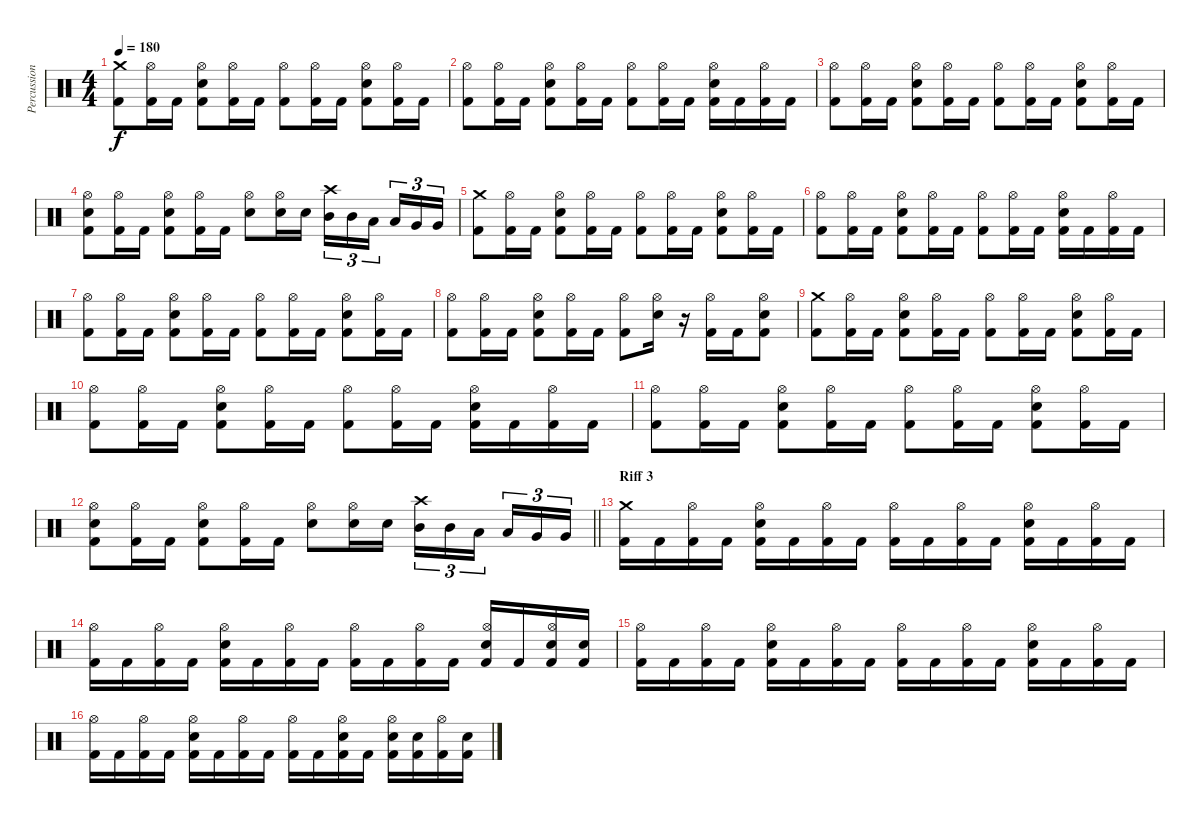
\track ("Percussion" "Percussion") {instrument percussion}
\staff {score}
\articulation defaults
\ts (4 4)
\tempo 180
\clef neutral
\ks c
("Crash medium (hit)" "Kick (hit) 2").8{dy f} ("Hi-Hat (open)" "Kick (hit) 2").16 "Kick (hit) 2".16 ("Kick (hit) 2" "Hi-Hat (open)" "Snare (hit) 2").8 ("Hi-Hat (open)" "Kick (hit) 2").16 "Kick (hit) 2".16 ("Hi-Hat (open)" "Kick (hit) 2").8 ("Hi-Hat (open)" "Kick (hit) 2").16 "Kick (hit) 2".16 ("Kick (hit) 2" "Hi-Hat (open)" "Snare (hit) 2").8 ("Hi-Hat (open)" "Kick (hit) 2").16 "Kick (hit) 2".16 |
("Hi-Hat (open)" "Kick (hit) 2").8 ("Hi-Hat (open)" "Kick (hit) 2").16 "Kick (hit) 2".16 ("Kick (hit) 2" "Hi-Hat (open)" "Snare (hit) 2").8 ("Hi-Hat (open)" "Kick (hit) 2").16 "Kick (hit) 2".16 ("Hi-Hat (open)" "Kick (hit) 2").8 ("Hi-Hat (open)" "Kick (hit) 2").16 "Kick (hit) 2".16 ("Kick (hit) 2" "Hi-Hat (open)" "Snare (hit) 2").16 "Kick (hit) 2".16 ("Hi-Hat (open)" "Kick (hit) 2").16 "Kick (hit) 2".16 |
("Hi-Hat (open)" "Kick (hit) 2").8 ("Hi-Hat (open)" "Kick (hit) 2").16 "Kick (hit) 2".16 ("Kick (hit) 2" "Hi-Hat (open)" "Snare (hit) 2").8 ("Hi-Hat (open)" "Kick (hit) 2").16 "Kick (hit) 2".16 ("Hi-Hat (open)" "Kick (hit) 2").8 ("Hi-Hat (open)" "Kick (hit) 2").16 "Kick (hit) 2".16 ("Kick (hit) 2" "Hi-Hat (open)" "Snare (hit) 2").8 ("Hi-Hat (open)" "Kick (hit) 2").16 "Kick (hit) 2".16 |
("Kick (hit) 2" "Hi-Hat (open)" "Snare (hit) 2").8 ("Hi-Hat (open)" "Kick (hit) 2").16 "Kick (hit) 2".16 ("Kick (hit) 2" "Hi-Hat (open)" "Snare (hit) 2").8 ("Hi-Hat (open)" "Kick (hit) 2").16 "Kick (hit) 2".16 ("Hi-Hat (open)" "Snare (hit) 2").8 ("Hi-Hat (open)" "Snare (hit) 2").16 "Snare (hit) 2".16 ("Crash high (hit)" "Mid Tom (hit)").16{tu (3 2)} "Mid Tom (hit)".16{tu (3 2)} "Low Tom (hit)".16{tu (3 2)} "Low Tom (hit)".16{tu (3 2)} "Very Low Tom (hit)".16{tu (3 2)} "Very Low Tom (hit)".16{tu (3 2)} |
("Crash medium (hit)" "Kick (hit) 2").8 ("Hi-Hat (open)" "Kick (hit) 2").16 "Kick (hit) 2".16 ("Kick (hit) 2" "Hi-Hat (open)" "Snare (hit) 2").8 ("Hi-Hat (open)" "Kick (hit) 2").16 "Kick (hit) 2".16 ("Hi-Hat (open)" "Kick (hit) 2").8 ("Hi-Hat (open)" "Kick (hit) 2").16 "Kick (hit) 2".16 ("Kick (hit) 2" "Hi-Hat (open)" "Snare (hit) 2").8 ("Hi-Hat (open)" "Kick (hit) 2").16 "Kick (hit) 2".16 |
("Hi-Hat (open)" "Kick (hit) 2").8 ("Hi-Hat (open)" "Kick (hit) 2").16 "Kick (hit) 2".16 ("Kick (hit) 2" "Hi-Hat (open)" "Snare (hit) 2").8 ("Hi-Hat (open)" "Kick (hit) 2").16 "Kick (hit) 2".16 ("Hi-Hat (open)" "Kick (hit) 2").8 ("Hi-Hat (open)" "Kick (hit) 2").16 "Kick (hit) 2".16 ("Kick (hit) 2" "Hi-Hat (open)" "Snare (hit) 2").16 "Kick (hit) 2".16 ("Hi-Hat (open)" "Kick (hit) 2").16 "Kick (hit) 2".16 |
("Hi-Hat (open)" "Kick (hit) 2").8 ("Hi-Hat (open)" "Kick (hit) 2").16 "Kick (hit) 2".16 ("Kick (hit) 2" "Hi-Hat (open)" "Snare (hit) 2").8 ("Hi-Hat (open)" "Kick (hit) 2").16 "Kick (hit) 2".16 ("Hi-Hat (open)" "Kick (hit) 2").8 ("Hi-Hat (open)" "Kick (hit) 2").16 "Kick (hit) 2".16 ("Kick (hit) 2" "Hi-Hat (open)" "Snare (hit) 2").8 ("Hi-Hat (open)" "Kick (hit) 2").16 "Kick (hit) 2".16 |
("Hi-Hat (open)" "Kick (hit) 2").8 ("Hi-Hat (open)" "Kick (hit) 2").16 "Kick (hit) 2".16 ("Kick (hit) 2" "Hi-Hat (open)" "Snare (hit) 2").8 ("Hi-Hat (open)" "Kick (hit) 2").16 "Kick (hit) 2".16 ("Hi-Hat (open)" "Kick (hit) 2").8 ("Hi-Hat (open)" "Snare (hit) 2").16 r.16 ("Hi-Hat (open)" "Kick (hit) 2").16 "Kick (hit) 2".16 ("Kick (hit) 2" "Hi-Hat (open)" "Snare (hit) 2").8 |
("Crash medium (hit)" "Kick (hit) 2").8 ("Hi-Hat (open)" "Kick (hit) 2").16 "Kick (hit) 2".16 ("Kick (hit) 2" "Hi-Hat (open)" "Snare (hit) 2").8 ("Hi-Hat (open)" "Kick (hit) 2").16 "Kick (hit) 2".16 ("Hi-Hat (open)" "Kick (hit) 2").8 ("Hi-Hat (open)" "Kick (hit) 2").16 "Kick (hit) 2".16 ("Kick (hit) 2" "Hi-Hat (open)" "Snare (hit) 2").8 ("Hi-Hat (open)" "Kick (hit) 2").16 "Kick (hit) 2".16 |
("Hi-Hat (open)" "Kick (hit) 2").8 ("Hi-Hat (open)" "Kick (hit) 2").16 "Kick (hit) 2".16 ("Kick (hit) 2" "Hi-Hat (open)" "Snare (hit) 2").8 ("Hi-Hat (open)" "Kick (hit) 2").16 "Kick (hit) 2".16 ("Hi-Hat (open)" "Kick (hit) 2").8 ("Hi-Hat (open)" "Kick (hit) 2").16 "Kick (hit) 2".16 ("Kick (hit) 2" "Hi-Hat (open)" "Snare (hit) 2").16 "Kick (hit) 2".16 ("Hi-Hat (open)" "Kick (hit) 2").16 "Kick (hit) 2".16 |
("Hi-Hat (open)" "Kick (hit) 2").8 ("Hi-Hat (open)" "Kick (hit) 2").16 "Kick (hit) 2".16 ("Kick (hit) 2" "Hi-Hat (open)" "Snare (hit) 2").8 ("Hi-Hat (open)" "Kick (hit) 2").16 "Kick (hit) 2".16 ("Hi-Hat (open)" "Kick (hit) 2").8 ("Hi-Hat (open)" "Kick (hit) 2").16 "Kick (hit) 2".16 ("Kick (hit) 2" "Hi-Hat (open)" "Snare (hit) 2").8 ("Hi-Hat (open)" "Kick (hit) 2").16 "Kick (hit) 2".16 |
\barLineRight lightlight
("Kick (hit) 2" "Hi-Hat (open)" "Snare (hit) 2").8 ("Hi-Hat (open)" "Kick (hit) 2").16 "Kick (hit) 2".16 ("Kick (hit) 2" "Hi-Hat (open)" "Snare (hit) 2").8 ("Hi-Hat (open)" "Kick (hit) 2").16 "Kick (hit) 2".16 ("Hi-Hat (open)" "Snare (hit) 2").8 ("Hi-Hat (open)" "Snare (hit) 2").16 "Snare (hit) 2".16 ("Crash high (hit)" "Mid Tom (hit)").16{tu (3 2)} "Mid Tom (hit)".16{tu (3 2)} "Low Tom (hit)".16{tu (3 2)} "Low Tom (hit)".16{tu (3 2)} "Very Low Tom (hit)".16{tu (3 2)} "Very Low Tom (hit)".16{tu (3 2)} |
\section ("" "Riff 3")
("Crash medium (hit)" "Kick (hit) 2").16 "Kick (hit) 2".16 ("Hi-Hat (open)" "Kick (hit) 2").16 "Kick (hit) 2".16 ("Kick (hit) 2" "Hi-Hat (open)" "Snare (hit) 2").16 "Kick (hit) 2".16 ("Hi-Hat (open)" "Kick (hit) 2").16 "Kick (hit) 2".16 ("Hi-Hat (open)" "Kick (hit) 2").16 "Kick (hit) 2".16 ("Hi-Hat (open)" "Kick (hit) 2").16 "Kick (hit) 2".16 ("Kick (hit) 2" "Hi-Hat (open)" "Snare (hit) 2").16 "Kick (hit) 2".16 ("Hi-Hat (open)" "Kick (hit) 2").16 "Kick (hit) 2".16 |
("Hi-Hat (open)" "Kick (hit) 2").16 "Kick (hit) 2".16 ("Hi-Hat (open)" "Kick (hit) 2").16 "Kick (hit) 2".16 ("Kick (hit) 2" "Hi-Hat (open)" "Snare (hit) 2").16 "Kick (hit) 2".16 ("Hi-Hat (open)" "Kick (hit) 2").16 "Kick (hit) 2".16 ("Hi-Hat (open)" "Kick (hit) 2").16 "Kick (hit) 2".16 ("Hi-Hat (open)" "Kick (hit) 2").16 "Kick (hit) 2".16 ("Kick (hit) 2" "Hi-Hat (open)" "Snare (hit) 2").16 "Kick (hit) 2".16 ("Kick (hit) 2" "Hi-Hat (open)" "Snare (hit) 2").16 ("Kick (hit) 2" "Snare (hit) 2").16 |
("Hi-Hat (open)" "Kick (hit) 2").16 "Kick (hit) 2".16 ("Hi-Hat (open)" "Kick (hit) 2").16 "Kick (hit) 2".16 ("Kick (hit) 2" "Hi-Hat (open)" "Snare (hit) 2").16 "Kick (hit) 2".16 ("Hi-Hat (open)" "Kick (hit) 2").16 "Kick (hit) 2".16 ("Hi-Hat (open)" "Kick (hit) 2").16 "Kick (hit) 2".16 ("Hi-Hat (open)" "Kick (hit) 2").16 "Kick (hit) 2".16 ("Kick (hit) 2" "Hi-Hat (open)" "Snare (hit) 2").16 "Kick (hit) 2".16 ("Hi-Hat (open)" "Kick (hit) 2").16 "Kick (hit) 2".16 |
("Hi-Hat (open)" "Kick (hit) 2").16 "Kick (hit) 2".16 ("Hi-Hat (open)" "Kick (hit) 2").16 "Kick (hit) 2".16 ("Kick (hit) 2" "Hi-Hat (open)" "Snare (hit) 2").16 "Kick (hit) 2".16 ("Hi-Hat (open)" "Kick (hit) 2").16 "Kick (hit) 2".16 ("Hi-Hat (open)" "Kick (hit) 2").16 "Kick (hit) 2".16 ("Kick (hit) 2" "Hi-Hat (open)" "Snare (hit) 2").16 "Kick (hit) 2".16 ("Kick (hit) 2" "Hi-Hat (open)" "Snare (hit) 2").16 ("Kick (hit) 2" "Snare (hit) 2").16 ("Hi-Hat (open)" "Kick (hit) 2").16 ("Kick (hit) 2" "Snare (hit) 2").16
